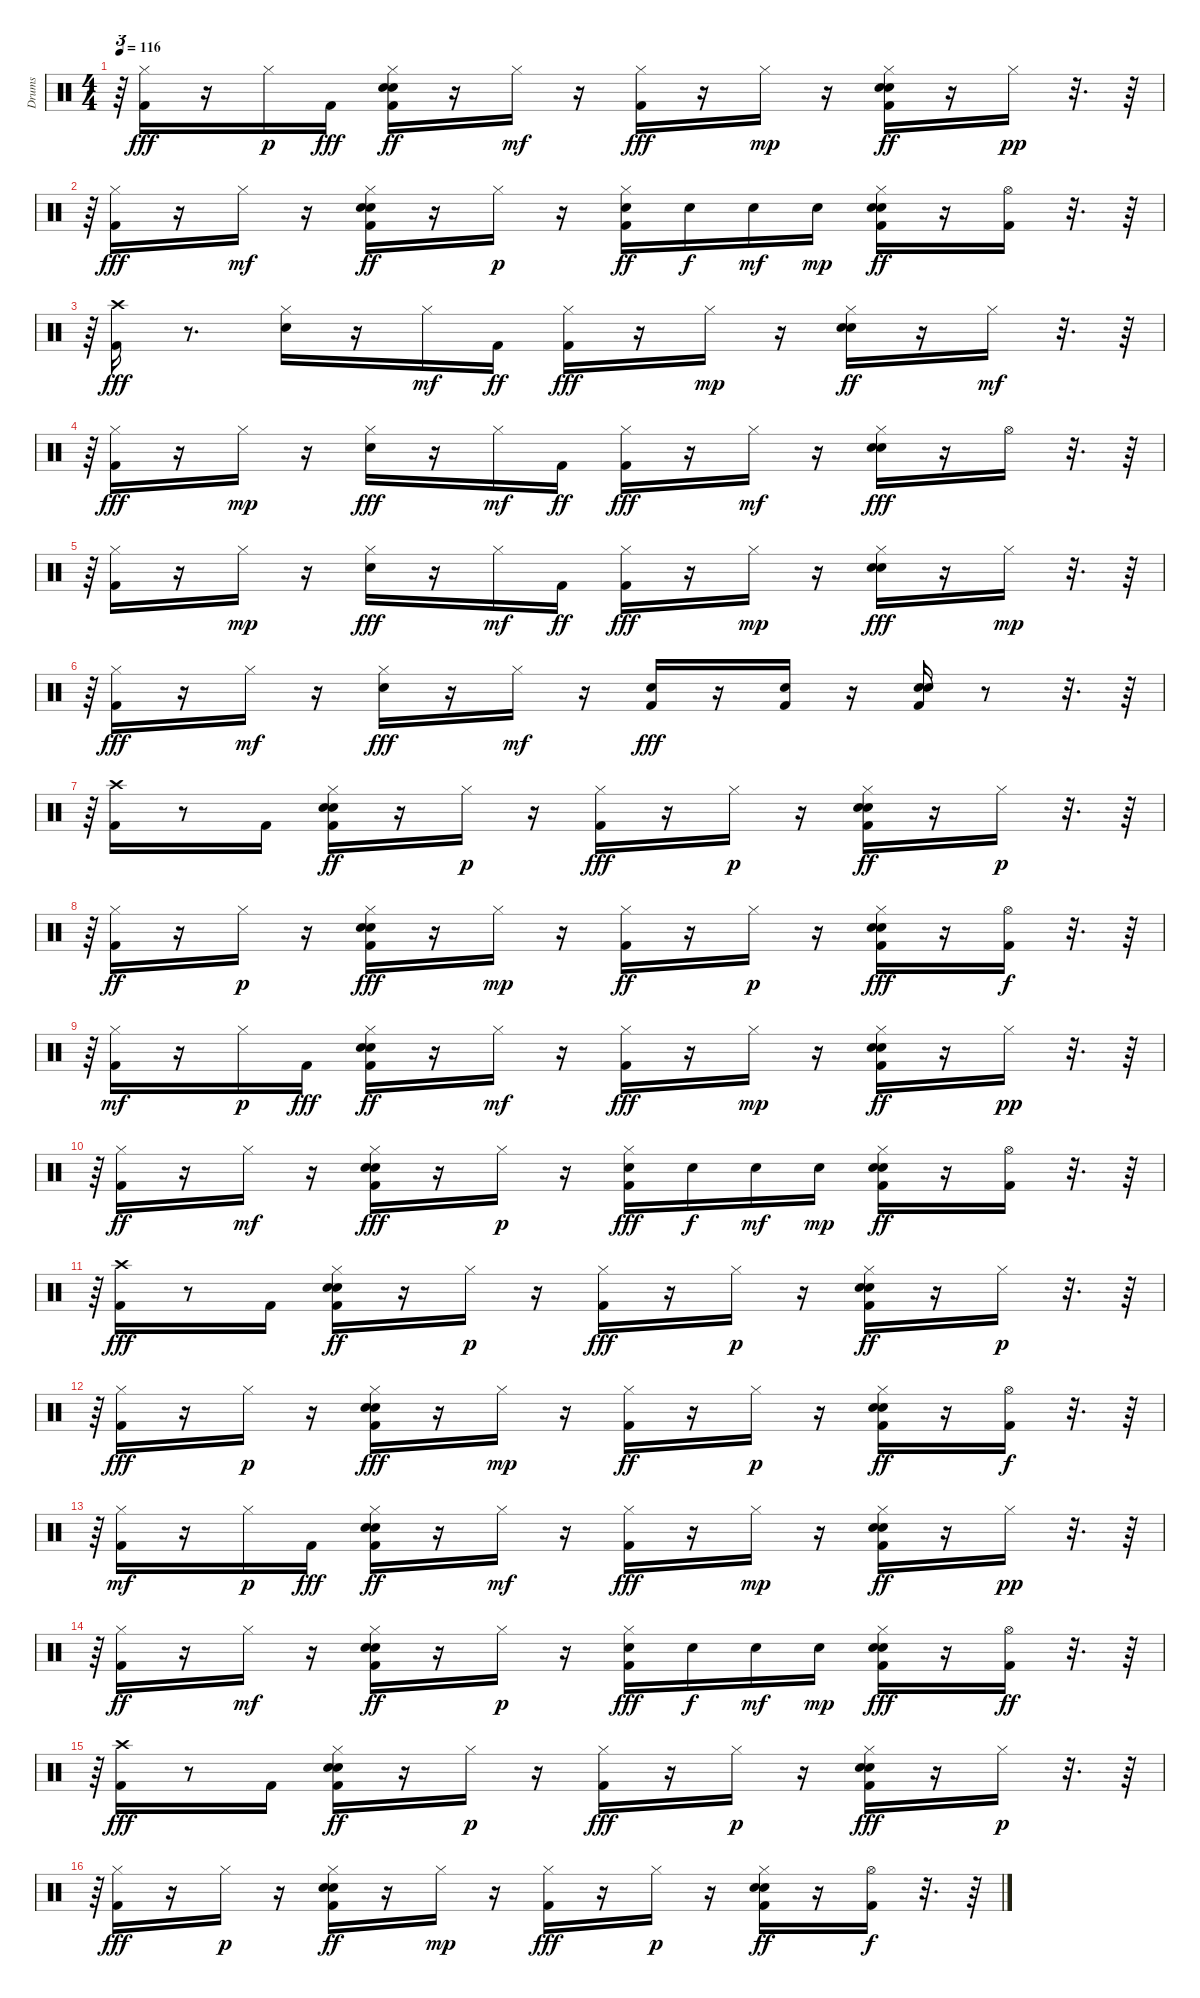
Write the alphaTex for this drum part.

\track ("Drums" "Drums") {instrument percussion}
\staff {score}
\articulation defaults
\ts (4 4)
\tempo 116
\clef neutral
\ks c
r.64{tu (3 2) dy f} ("Hi-Hat (closed)" "Kick (hit) 2").16{dy fff} r.16 "Hi-Hat (closed)".16{dy p} "Kick (hit) 2".16{dy fff} ("Hi-Hat (closed)" "Kick (hit) 2" "Hand Clap (hit)" "Snare (hit) 2").16{dy ff} r.16 "Hi-Hat (closed)".16{dy mf} r.16 ("Kick (hit) 2" "Hi-Hat (closed)").16{dy fff} r.16 "Hi-Hat (closed)".16{dy mp} r.16 ("Snare (hit) 2" "Kick (hit) 2" "Hand Clap (hit)" "Hi-Hat (closed)").16{dy ff} r.16 "Hi-Hat (closed)".16{dy pp} r.32{d} r.64 |
r.64{tu (3 2)} ("Hi-Hat (closed)" "Kick (hit) 2").16{dy fff} r.16 "Hi-Hat (closed)".16{dy mf} r.16 ("Kick (hit) 2" "Snare (hit) 2" "Hi-Hat (closed)" "Hand Clap (hit)").16{dy ff} r.16 "Hi-Hat (closed)".16{dy p} r.16 ("Kick (hit) 2" "Snare (hit) 2" "Hi-Hat (closed)").16{dy ff} "Snare (hit) 2".16{dy f} "Snare (hit) 2".16{dy mf} "Snare (hit) 2".16{dy mp} ("Kick (hit) 2" "Snare (hit) 2" "Hand Clap (hit)" "Hi-Hat (closed)").16{dy ff} r.16 ("Kick (hit) 2" "Hi-Hat (open)").16 r.32{d} r.64 |
r.64{tu (3 2)} ("Kick (hit) 2" "Crash high (hit)").16{dy fff} r.8{d} ("Snare (hit) 2" "Hi-Hat (closed)").16 r.16 "Hi-Hat (closed)".16{dy mf} "Kick (hit) 2".16{dy ff} ("Kick (hit) 2" "Hi-Hat (closed)").16{dy fff} r.16 "Hi-Hat (closed)".16{dy mp} r.16 ("Hand Clap (hit)" "Snare (hit) 2" "Hi-Hat (closed)").16{dy ff} r.16 "Hi-Hat (closed)".16{dy mf} r.32{d} r.64 |
r.64{tu (3 2)} ("Kick (hit) 2" "Hi-Hat (closed)").16{dy fff} r.16 "Hi-Hat (closed)".16{dy mp} r.16 ("Snare (hit) 2" "Hi-Hat (closed)").16{dy fff} r.16 "Hi-Hat (closed)".16{dy mf} "Kick (hit) 2".16{dy ff} ("Kick (hit) 2" "Hi-Hat (closed)").16{dy fff} r.16 "Hi-Hat (closed)".16{dy mf} r.16 ("Hi-Hat (closed)" "Hand Clap (hit)" "Snare (hit) 2").16{dy fff} r.16 "Hi-Hat (open)".16 r.32{d} r.64 |
r.64{tu (3 2)} ("Kick (hit) 2" "Hi-Hat (closed)").16 r.16 "Hi-Hat (closed)".16{dy mp} r.16 ("Snare (hit) 2" "Hi-Hat (closed)").16{dy fff} r.16 "Hi-Hat (closed)".16{dy mf} "Kick (hit) 2".16{dy ff} ("Hi-Hat (closed)" "Kick (hit) 2").16{dy fff} r.16 "Hi-Hat (closed)".16{dy mp} r.16 ("Snare (hit) 2" "Hi-Hat (closed)" "Hand Clap (hit)").16{dy fff} r.16 "Hi-Hat (closed)".16{dy mp} r.32{d} r.64 |
r.64{tu (3 2)} ("Kick (hit) 2" "Hi-Hat (closed)").16{dy fff} r.16 "Hi-Hat (closed)".16{dy mf} r.16 ("Snare (hit) 2" "Hi-Hat (closed)").16{dy fff} r.16 "Hi-Hat (closed)".16{dy mf} r.16 ("Snare (hit) 2" "Kick (hit) 2").16{dy fff} r.16 ("Snare (hit) 2" "Kick (hit) 2").16 r.16 ("Hand Clap (hit)" "Snare (hit) 2" "Kick (hit) 2").16 r.8 r.32{d} r.64 |
r.64{tu (3 2)} ("Kick (hit) 2" "Crash high (hit)").16 r.8 "Kick (hit) 2".16 ("Kick (hit) 2" "Hand Clap (hit)" "Hi-Hat (closed)" "Snare (hit) 2").16{dy ff} r.16 "Hi-Hat (closed)".16{dy p} r.16 ("Kick (hit) 2" "Hi-Hat (closed)").16{dy fff} r.16 "Hi-Hat (closed)".16{dy p} r.16 ("Snare (hit) 2" "Kick (hit) 2" "Hand Clap (hit)" "Hi-Hat (closed)").16{dy ff} r.16 "Hi-Hat (closed)".16{dy p} r.32{d} r.64 |
r.64{tu (3 2)} ("Kick (hit) 2" "Hi-Hat (closed)").16{dy ff} r.16 "Hi-Hat (closed)".16{dy p} r.16 ("Hi-Hat (closed)" "Hand Clap (hit)" "Kick (hit) 2" "Snare (hit) 2").16{dy fff} r.16 "Hi-Hat (closed)".16{dy mp} r.16 ("Kick (hit) 2" "Hi-Hat (closed)").16{dy ff} r.16 "Hi-Hat (closed)".16{dy p} r.16 ("Snare (hit) 2" "Hand Clap (hit)" "Hi-Hat (closed)" "Kick (hit) 2").16{dy fff} r.16 ("Kick (hit) 2" "Hi-Hat (open)").16{dy f} r.32{d} r.64 |
r.64{tu (3 2)} ("Kick (hit) 2" "Hi-Hat (closed)").16{dy mf} r.16 "Hi-Hat (closed)".16{dy p} "Kick (hit) 2".16{dy fff} ("Hi-Hat (closed)" "Hand Clap (hit)" "Kick (hit) 2" "Snare (hit) 2").16{dy ff} r.16 "Hi-Hat (closed)".16{dy mf} r.16 ("Kick (hit) 2" "Hi-Hat (closed)").16{dy fff} r.16 "Hi-Hat (closed)".16{dy mp} r.16 ("Kick (hit) 2" "Snare (hit) 2" "Hi-Hat (closed)" "Hand Clap (hit)").16{dy ff} r.16 "Hi-Hat (closed)".16{dy pp} r.32{d} r.64 |
r.64{tu (3 2)} ("Kick (hit) 2" "Hi-Hat (closed)").16{dy ff} r.16 "Hi-Hat (closed)".16{dy mf} r.16 ("Snare (hit) 2" "Hi-Hat (closed)" "Hand Clap (hit)" "Kick (hit) 2").16{dy fff} r.16 "Hi-Hat (closed)".16{dy p} r.16 ("Hi-Hat (closed)" "Snare (hit) 2" "Kick (hit) 2").16{dy fff} "Snare (hit) 2".16{dy f} "Snare (hit) 2".16{dy mf} "Snare (hit) 2".16{dy mp} ("Kick (hit) 2" "Snare (hit) 2" "Hi-Hat (closed)" "Hand Clap (hit)").16{dy ff} r.16 ("Hi-Hat (open)" "Kick (hit) 2").16 r.32{d} r.64 |
r.64{tu (3 2)} ("Crash high (hit)" "Kick (hit) 2").16{dy fff} r.8 "Kick (hit) 2".16 ("Kick (hit) 2" "Hi-Hat (closed)" "Hand Clap (hit)" "Snare (hit) 2").16{dy ff} r.16 "Hi-Hat (closed)".16{dy p} r.16 ("Kick (hit) 2" "Hi-Hat (closed)").16{dy fff} r.16 "Hi-Hat (closed)".16{dy p} r.16 ("Kick (hit) 2" "Hi-Hat (closed)" "Snare (hit) 2" "Hand Clap (hit)").16{dy ff} r.16 "Hi-Hat (closed)".16{dy p} r.32{d} r.64 |
r.64{tu (3 2)} ("Hi-Hat (closed)" "Kick (hit) 2").16{dy fff} r.16 "Hi-Hat (closed)".16{dy p} r.16 ("Hand Clap (hit)" "Hi-Hat (closed)" "Snare (hit) 2" "Kick (hit) 2").16{dy fff} r.16 "Hi-Hat (closed)".16{dy mp} r.16 ("Kick (hit) 2" "Hi-Hat (closed)").16{dy ff} r.16 "Hi-Hat (closed)".16{dy p} r.16 ("Kick (hit) 2" "Hand Clap (hit)" "Hi-Hat (closed)" "Snare (hit) 2").16{dy ff} r.16 ("Hi-Hat (open)" "Kick (hit) 2").16{dy f} r.32{d} r.64 |
r.64{tu (3 2)} ("Kick (hit) 2" "Hi-Hat (closed)").16{dy mf} r.16 "Hi-Hat (closed)".16{dy p} "Kick (hit) 2".16{dy fff} ("Hi-Hat (closed)" "Hand Clap (hit)" "Kick (hit) 2" "Snare (hit) 2").16{dy ff} r.16 "Hi-Hat (closed)".16{dy mf} r.16 ("Kick (hit) 2" "Hi-Hat (closed)").16{dy fff} r.16 "Hi-Hat (closed)".16{dy mp} r.16 ("Hand Clap (hit)" "Snare (hit) 2" "Kick (hit) 2" "Hi-Hat (closed)").16{dy ff} r.16 "Hi-Hat (closed)".16{dy pp} r.32{d} r.64 |
r.64{tu (3 2)} ("Kick (hit) 2" "Hi-Hat (closed)").16{dy ff} r.16 "Hi-Hat (closed)".16{dy mf} r.16 ("Hi-Hat (closed)" "Snare (hit) 2" "Kick (hit) 2" "Hand Clap (hit)").16{dy ff} r.16 "Hi-Hat (closed)".16{dy p} r.16 ("Hi-Hat (closed)" "Snare (hit) 2" "Kick (hit) 2").16{dy fff} "Snare (hit) 2".16{dy f} "Snare (hit) 2".16{dy mf} "Snare (hit) 2".16{dy mp} ("Hi-Hat (closed)" "Hand Clap (hit)" "Snare (hit) 2" "Kick (hit) 2").16{dy fff} r.16 ("Kick (hit) 2" "Hi-Hat (open)").16{dy ff} r.32{d} r.64 |
r.64{tu (3 2)} ("Kick (hit) 2" "Crash high (hit)").16{dy fff} r.8 "Kick (hit) 2".16 ("Snare (hit) 2" "Hand Clap (hit)" "Kick (hit) 2" "Hi-Hat (closed)").16{dy ff} r.16 "Hi-Hat (closed)".16{dy p} r.16 ("Hi-Hat (closed)" "Kick (hit) 2").16{dy fff} r.16 "Hi-Hat (closed)".16{dy p} r.16 ("Hand Clap (hit)" "Hi-Hat (closed)" "Snare (hit) 2" "Kick (hit) 2").16{dy fff} r.16 "Hi-Hat (closed)".16{dy p} r.32{d} r.64 |
r.64{tu (3 2)} ("Hi-Hat (closed)" "Kick (hit) 2").16{dy fff} r.16 "Hi-Hat (closed)".16{dy p} r.16 ("Snare (hit) 2" "Hi-Hat (closed)" "Kick (hit) 2" "Hand Clap (hit)").16{dy ff} r.16 "Hi-Hat (closed)".16{dy mp} r.16 ("Hi-Hat (closed)" "Kick (hit) 2").16{dy fff} r.16 "Hi-Hat (closed)".16{dy p} r.16 ("Snare (hit) 2" "Kick (hit) 2" "Hand Clap (hit)" "Hi-Hat (closed)").16{dy ff} r.16 ("Hi-Hat (open)" "Kick (hit) 2").16{dy f} r.32{d} r.64
